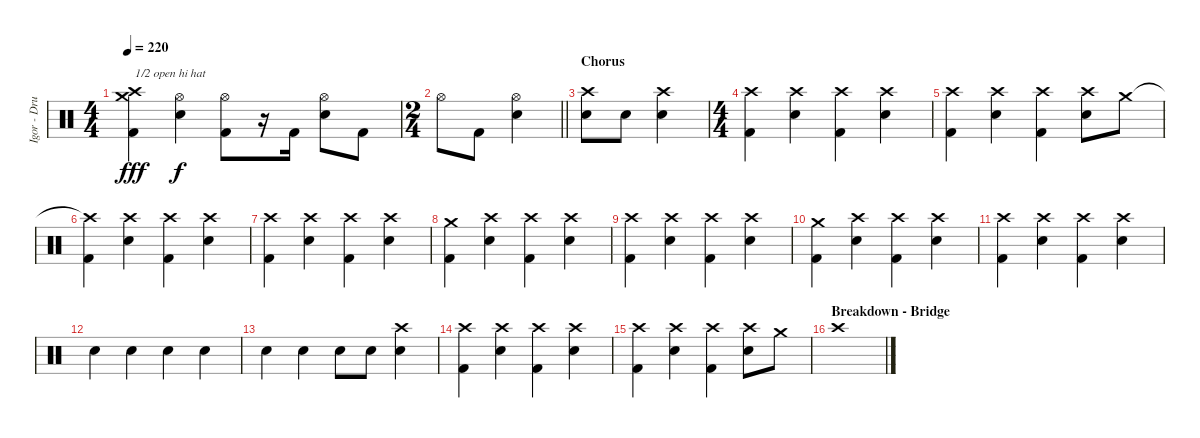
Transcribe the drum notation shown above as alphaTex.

\track ("Igor - Drums" "Igor - Dru") {instrument percussion}
\staff {score}
\articulation defaults
\ts (4 4)
\tempo 220
\clef neutral
\ks c
("Crash high (hit)" "Crash medium (hit)" "Kick (hit) 2").4{txt "1/2 open hi hat" dy fff} ("Hi-Hat (open)" "Electric Snare (hit)").4{dy f} ("Hi-Hat (open)" "Kick (hit) 2").8 r.16 "Kick (hit) 2".16 ("Hi-Hat (open)" "Electric Snare (hit)").8 "Kick (hit) 2".8 |
\ts (2 4)
\barLineRight lightlight "Hi-Hat (open)".8 "Kick (hit) 2".8
("Hi-Hat (open)" "Electric Snare (hit)").4 |
\section ("" "Chorus")
("Crash high (hit)" "Electric Snare (hit)").8 "Electric Snare (hit)".8 ("Crash high (hit)" "Electric Snare (hit)").4 |
\ts (4 4)
("Crash high (hit)" "Kick (hit) 2").4 ("Crash high (hit)" "Snare (hit) 2").4 ("Crash high (hit)" "Kick (hit) 2").4 ("Crash high (hit)" "Snare (hit) 2").4 |
("Crash high (hit)" "Kick (hit) 2").4 ("Crash high (hit)" "Snare (hit) 2").4 ("Crash high (hit)" "Kick (hit) 2").4 ("Crash high (hit)" "Snare (hit) 2").8 "Crash medium (hit)".8 |
("Crash high (hit)"{t} "Kick (hit) 2").4 ("Crash high (hit)" "Snare (hit) 2").4 ("Crash high (hit)" "Kick (hit) 2").4 ("Crash high (hit)" "Snare (hit) 2").4 |
("Crash high (hit)" "Kick (hit) 2").4 ("Crash high (hit)" "Snare (hit) 2").4 ("Crash high (hit)" "Kick (hit) 2").4 ("Crash high (hit)" "Snare (hit) 2").4 |
("Crash medium (hit)" "Kick (hit) 2").4 ("Crash high (hit)" "Snare (hit) 2").4 ("Crash high (hit)" "Kick (hit) 2").4 ("Crash high (hit)" "Snare (hit) 2").4 |
("Crash high (hit)" "Kick (hit) 2").4 ("Crash high (hit)" "Snare (hit) 2").4 ("Crash high (hit)" "Kick (hit) 2").4 ("Crash high (hit)" "Snare (hit) 2").4 |
("Crash medium (hit)" "Kick (hit) 2").4 ("Crash high (hit)" "Snare (hit) 2").4 ("Crash high (hit)" "Kick (hit) 2").4 ("Crash high (hit)" "Snare (hit) 2").4 |
("Crash high (hit)" "Kick (hit) 2").4 ("Crash high (hit)" "Snare (hit) 2").4 ("Crash high (hit)" "Kick (hit) 2").4 ("Crash high (hit)" "Snare (hit) 2").4 |
"Electric Snare (hit)".4 "Electric Snare (hit)".4 "Electric Snare (hit)".4 "Electric Snare (hit)".4 |
"Electric Snare (hit)".4 "Electric Snare (hit)".4 "Electric Snare (hit)".8 "Electric Snare (hit)".8 ("Crash high (hit)" "Electric Snare (hit)").4 |
("Crash high (hit)" "Kick (hit) 2").4 ("Crash high (hit)" "Snare (hit) 2").4 ("Crash high (hit)" "Kick (hit) 2").4 ("Crash high (hit)" "Snare (hit) 2").4 |
("Crash high (hit)" "Kick (hit) 2").4 ("Crash high (hit)" "Snare (hit) 2").4 ("Crash high (hit)" "Kick (hit) 2").4 ("Crash high (hit)" "Snare (hit) 2").8 "Crash medium (hit)".8 |
\section ("" "Breakdown - Bridge")
"Crash high (hit)".1
